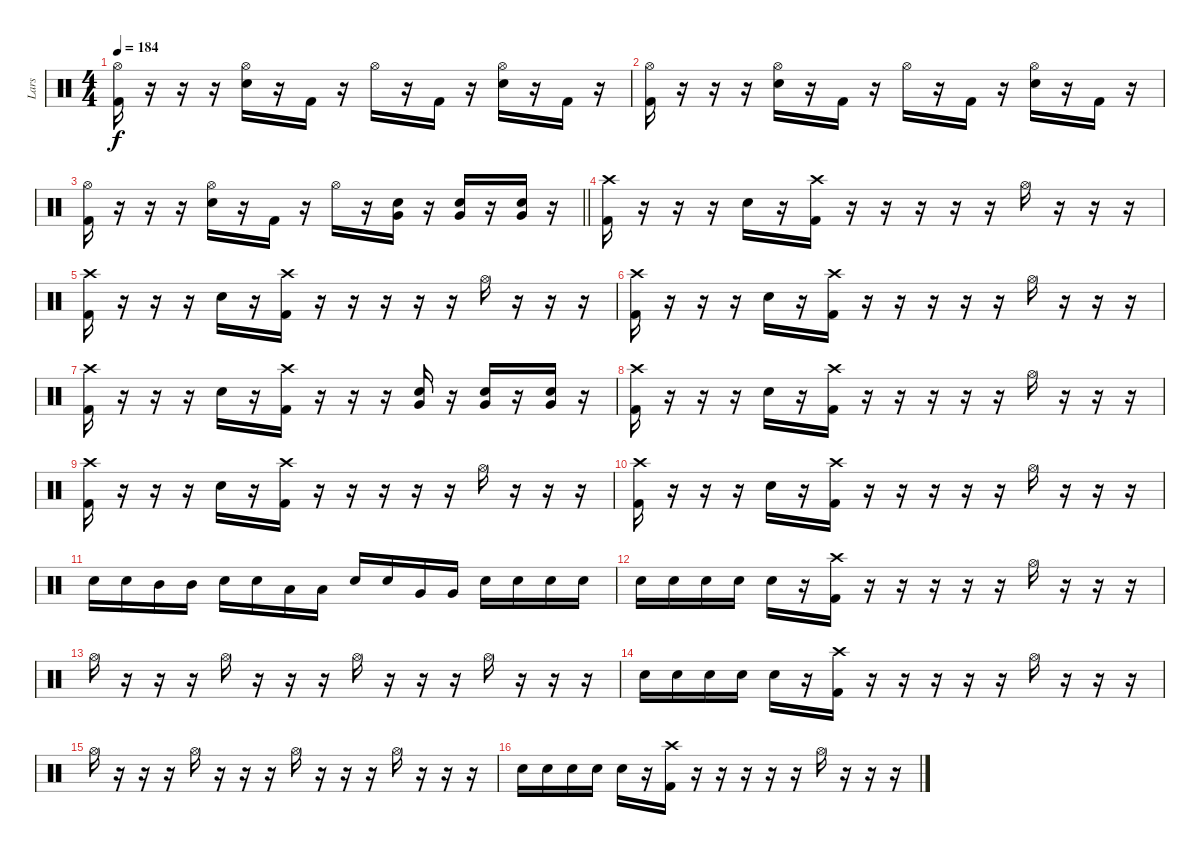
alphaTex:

\track ("Lars" "Lars") {instrument percussion}
\staff {score}
\articulation defaults
\ts (4 4)
\tempo 184
\clef neutral
\ks c
("Hi-Hat (open)" "Kick (hit) 2").16{dy f} r.16 r.16 r.16 ("Electric Snare (hit)" "Hi-Hat (open)").16 r.16 "Kick (hit) 2".16 r.16 "Hi-Hat (open)".16 r.16 "Kick (hit) 2".16 r.16 ("Electric Snare (hit)" "Hi-Hat (open)").16 r.16 "Kick (hit) 2".16 r.16 |
("Hi-Hat (open)" "Kick (hit) 2").16 r.16 r.16 r.16 ("Electric Snare (hit)" "Hi-Hat (open)").16 r.16 "Kick (hit) 2".16 r.16 "Hi-Hat (open)".16 r.16 "Kick (hit) 2".16 r.16 ("Electric Snare (hit)" "Hi-Hat (open)").16 r.16 "Kick (hit) 2".16 r.16 |
\barLineRight lightlight
("Hi-Hat (open)" "Kick (hit) 2").16 r.16 r.16 r.16 ("Electric Snare (hit)" "Hi-Hat (open)").16 r.16 "Kick (hit) 2".16 r.16 "Hi-Hat (open)".16 r.16 ("Electric Snare (hit)" "Very Low Tom (hit)").16 r.16 ("Electric Snare (hit)" "Very Low Tom (hit)").16 r.16 ("Electric Snare (hit)" "Very Low Tom (hit)").16 r.16 |
("Crash high (hit)" "Kick (hit) 2").16 r.16 r.16 r.16 "Electric Snare (hit)".16 r.16 ("Crash high (hit)" "Kick (hit) 2").16 r.16 r.16 r.16 r.16 r.16 "Hi-Hat (open)".16 r.16 r.16 r.16 |
("Crash high (hit)" "Kick (hit) 2").16 r.16 r.16 r.16 "Electric Snare (hit)".16 r.16 ("Crash high (hit)" "Kick (hit) 2").16 r.16 r.16 r.16 r.16 r.16 "Hi-Hat (open)".16 r.16 r.16 r.16 |
("Crash high (hit)" "Kick (hit) 2").16 r.16 r.16 r.16 "Electric Snare (hit)".16 r.16 ("Crash high (hit)" "Kick (hit) 2").16 r.16 r.16 r.16 r.16 r.16 "Hi-Hat (open)".16 r.16 r.16 r.16 |
("Crash high (hit)" "Kick (hit) 2").16 r.16 r.16 r.16 "Electric Snare (hit)".16 r.16 ("Crash high (hit)" "Kick (hit) 2").16 r.16 r.16 r.16 ("Electric Snare (hit)" "Very Low Tom (hit)").16 r.16 ("Electric Snare (hit)" "Very Low Tom (hit)").16 r.16 ("Electric Snare (hit)" "Very Low Tom (hit)").16 r.16 |
("Crash high (hit)" "Kick (hit) 2").16 r.16 r.16 r.16 "Electric Snare (hit)".16 r.16 ("Crash high (hit)" "Kick (hit) 2").16 r.16 r.16 r.16 r.16 r.16 "Hi-Hat (open)".16 r.16 r.16 r.16 |
("Crash high (hit)" "Kick (hit) 2").16 r.16 r.16 r.16 "Electric Snare (hit)".16 r.16 ("Crash high (hit)" "Kick (hit) 2").16 r.16 r.16 r.16 r.16 r.16 "Hi-Hat (open)".16 r.16 r.16 r.16 |
("Crash high (hit)" "Kick (hit) 2").16 r.16 r.16 r.16 "Electric Snare (hit)".16 r.16 ("Crash high (hit)" "Kick (hit) 2").16 r.16 r.16 r.16 r.16 r.16 "Hi-Hat (open)".16 r.16 r.16 r.16 |
"Electric Snare (hit)".16 "Electric Snare (hit)".16 "Mid Tom (hit)".16 "Mid Tom (hit)".16 "Electric Snare (hit)".16 "Electric Snare (hit)".16 "Low Tom (hit)".16 "Low Tom (hit)".16 "Electric Snare (hit)".16 "Electric Snare (hit)".16 "Very Low Tom (hit)".16 "Very Low Tom (hit)".16 "Electric Snare (hit)".16 "Electric Snare (hit)".16 "Electric Snare (hit)".16 "Electric Snare (hit)".16 |
"Electric Snare (hit)".16 "Electric Snare (hit)".16 "Electric Snare (hit)".16 "Electric Snare (hit)".16 "Electric Snare (hit)".16 r.16 ("Crash high (hit)" "Kick (hit) 2").16 r.16 r.16 r.16 r.16 r.16 "Hi-Hat (open)".16 r.16 r.16 r.16 |
"Hi-Hat (open)".16 r.16 r.16 r.16 "Hi-Hat (open)".16 r.16 r.16 r.16 "Hi-Hat (open)".16 r.16 r.16 r.16 "Hi-Hat (open)".16 r.16 r.16 r.16 |
"Electric Snare (hit)".16 "Electric Snare (hit)".16 "Electric Snare (hit)".16 "Electric Snare (hit)".16 "Electric Snare (hit)".16 r.16 ("Crash high (hit)" "Kick (hit) 2").16 r.16 r.16 r.16 r.16 r.16 "Hi-Hat (open)".16 r.16 r.16 r.16 |
"Hi-Hat (open)".16 r.16 r.16 r.16 "Hi-Hat (open)".16 r.16 r.16 r.16 "Hi-Hat (open)".16 r.16 r.16 r.16 "Hi-Hat (open)".16 r.16 r.16 r.16 |
"Electric Snare (hit)".16 "Electric Snare (hit)".16 "Electric Snare (hit)".16 "Electric Snare (hit)".16 "Electric Snare (hit)".16 r.16 ("Crash high (hit)" "Kick (hit) 2").16 r.16 r.16 r.16 r.16 r.16 "Hi-Hat (open)".16 r.16 r.16 r.16
